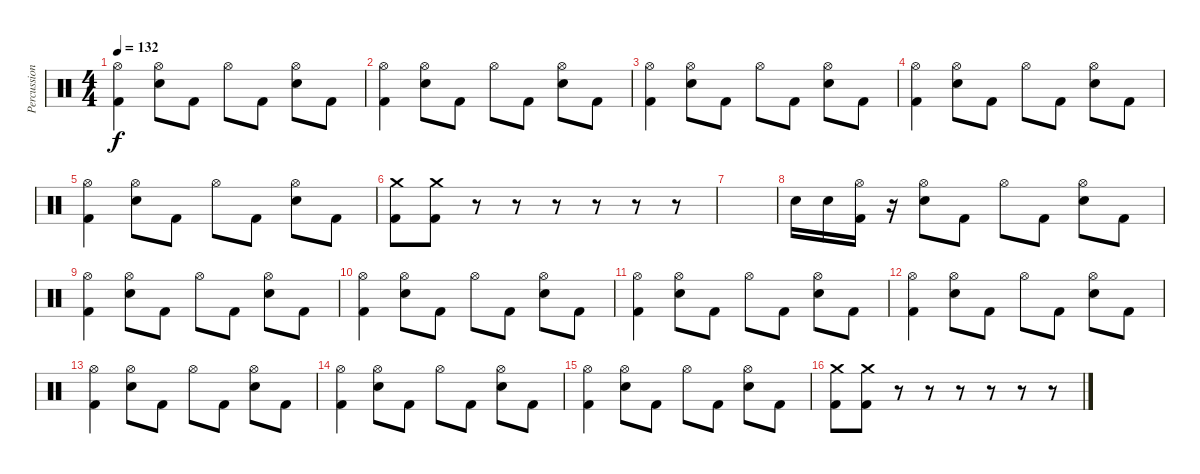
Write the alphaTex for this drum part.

\track ("Percussions" "Percussion") {instrument percussion}
\staff {score}
\articulation defaults
\ts (4 4)
\tempo 132
\clef neutral
\ks c
("Kick (hit) 2" "Hi-Hat (open)").4{dy f} ("Electric Snare (hit)" "Hi-Hat (open)").8 "Kick (hit) 2".8 "Hi-Hat (open)".8 "Kick (hit) 2".8 ("Electric Snare (hit)" "Hi-Hat (open)").8 "Kick (hit) 2".8 |
("Kick (hit) 2" "Hi-Hat (open)").4 ("Electric Snare (hit)" "Hi-Hat (open)").8 "Kick (hit) 2".8 "Hi-Hat (open)".8 "Kick (hit) 2".8 ("Electric Snare (hit)" "Hi-Hat (open)").8 "Kick (hit) 2".8 |
("Kick (hit) 2" "Hi-Hat (open)").4 ("Electric Snare (hit)" "Hi-Hat (open)").8 "Kick (hit) 2".8 "Hi-Hat (open)".8 "Kick (hit) 2".8 ("Electric Snare (hit)" "Hi-Hat (open)").8 "Kick (hit) 2".8 |
("Kick (hit) 2" "Hi-Hat (open)").4 ("Electric Snare (hit)" "Hi-Hat (open)").8 "Kick (hit) 2".8 "Hi-Hat (open)".8 "Kick (hit) 2".8 ("Electric Snare (hit)" "Hi-Hat (open)").8 "Kick (hit) 2".8 |
("Kick (hit) 2" "Hi-Hat (open)").4 ("Electric Snare (hit)" "Hi-Hat (open)").8 "Kick (hit) 2".8 "Hi-Hat (open)".8 "Kick (hit) 2".8 ("Electric Snare (hit)" "Hi-Hat (open)").8 "Kick (hit) 2".8 |
("Kick (hit) 2" "Crash medium (hit)").8 ("Kick (hit) 2" "Crash medium (hit)").8 r.8 r.8 r.8 r.8 r.8 r.8 |
|
"Electric Snare (hit)".16 "Electric Snare (hit)".16 ("Kick (hit) 2" "Hi-Hat (open)").16 r.16 ("Electric Snare (hit)" "Hi-Hat (open)").8 "Kick (hit) 2".8 "Hi-Hat (open)".8 "Kick (hit) 2".8 ("Electric Snare (hit)" "Hi-Hat (open)").8 "Kick (hit) 2".8 |
("Kick (hit) 2" "Hi-Hat (open)").4 ("Electric Snare (hit)" "Hi-Hat (open)").8 "Kick (hit) 2".8 "Hi-Hat (open)".8 "Kick (hit) 2".8 ("Electric Snare (hit)" "Hi-Hat (open)").8 "Kick (hit) 2".8 |
("Kick (hit) 2" "Hi-Hat (open)").4 ("Electric Snare (hit)" "Hi-Hat (open)").8 "Kick (hit) 2".8 "Hi-Hat (open)".8 "Kick (hit) 2".8 ("Electric Snare (hit)" "Hi-Hat (open)").8 "Kick (hit) 2".8 |
("Kick (hit) 2" "Hi-Hat (open)").4 ("Electric Snare (hit)" "Hi-Hat (open)").8 "Kick (hit) 2".8 "Hi-Hat (open)".8 "Kick (hit) 2".8 ("Electric Snare (hit)" "Hi-Hat (open)").8 "Kick (hit) 2".8 |
("Kick (hit) 2" "Hi-Hat (open)").4 ("Electric Snare (hit)" "Hi-Hat (open)").8 "Kick (hit) 2".8 "Hi-Hat (open)".8 "Kick (hit) 2".8 ("Electric Snare (hit)" "Hi-Hat (open)").8 "Kick (hit) 2".8 |
("Kick (hit) 2" "Hi-Hat (open)").4 ("Electric Snare (hit)" "Hi-Hat (open)").8 "Kick (hit) 2".8 "Hi-Hat (open)".8 "Kick (hit) 2".8 ("Electric Snare (hit)" "Hi-Hat (open)").8 "Kick (hit) 2".8 |
("Kick (hit) 2" "Hi-Hat (open)").4 ("Electric Snare (hit)" "Hi-Hat (open)").8 "Kick (hit) 2".8 "Hi-Hat (open)".8 "Kick (hit) 2".8 ("Electric Snare (hit)" "Hi-Hat (open)").8 "Kick (hit) 2".8 |
("Kick (hit) 2" "Hi-Hat (open)").4 ("Electric Snare (hit)" "Hi-Hat (open)").8 "Kick (hit) 2".8 "Hi-Hat (open)".8 "Kick (hit) 2".8 ("Electric Snare (hit)" "Hi-Hat (open)").8 "Kick (hit) 2".8 |
("Kick (hit) 2" "Crash medium (hit)").8 ("Kick (hit) 2" "Crash medium (hit)").8 r.8 r.8 r.8 r.8 r.8 r.8
